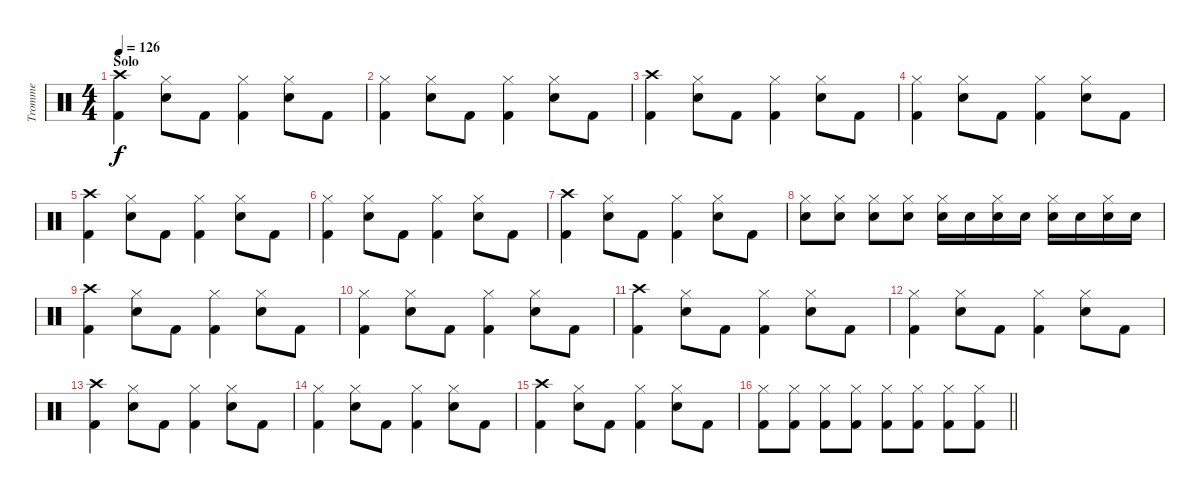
\track ("Tromme" "Tromme") {instrument percussion}
\staff {score}
\articulation defaults
\ts (4 4)
\section ("" "Solo")
\tempo 126
\clef neutral
\ks c
("Crash high (hit)" "Kick (hit) 2").4{dy f} ("Hi-Hat (closed)" "Snare (hit) 2").8 "Kick (hit) 2".8 ("Hi-Hat (closed)" "Kick (hit) 2").4 ("Hi-Hat (closed)" "Snare (hit) 2").8 "Kick (hit) 2".8 |
("Hi-Hat (closed)" "Kick (hit) 2").4 ("Hi-Hat (closed)" "Snare (hit) 2").8 "Kick (hit) 2".8 ("Hi-Hat (closed)" "Kick (hit) 2").4 ("Hi-Hat (closed)" "Snare (hit) 2").8 "Kick (hit) 2".8 |
("Crash high (hit)" "Kick (hit) 2").4 ("Hi-Hat (closed)" "Snare (hit) 2").8 "Kick (hit) 2".8 ("Hi-Hat (closed)" "Kick (hit) 2").4 ("Hi-Hat (closed)" "Snare (hit) 2").8 "Kick (hit) 2".8 |
("Hi-Hat (closed)" "Kick (hit) 2").4 ("Hi-Hat (closed)" "Snare (hit) 2").8 "Kick (hit) 2".8 ("Hi-Hat (closed)" "Kick (hit) 2").4 ("Hi-Hat (closed)" "Snare (hit) 2").8 "Kick (hit) 2".8 |
("Crash high (hit)" "Kick (hit) 2").4 ("Hi-Hat (closed)" "Snare (hit) 2").8 "Kick (hit) 2".8 ("Hi-Hat (closed)" "Kick (hit) 2").4 ("Hi-Hat (closed)" "Snare (hit) 2").8 "Kick (hit) 2".8 |
("Hi-Hat (closed)" "Kick (hit) 2").4 ("Hi-Hat (closed)" "Snare (hit) 2").8 "Kick (hit) 2".8 ("Hi-Hat (closed)" "Kick (hit) 2").4 ("Hi-Hat (closed)" "Snare (hit) 2").8 "Kick (hit) 2".8 |
("Crash high (hit)" "Kick (hit) 2").4 ("Hi-Hat (closed)" "Snare (hit) 2").8 "Kick (hit) 2".8 ("Hi-Hat (closed)" "Kick (hit) 2").4 ("Hi-Hat (closed)" "Snare (hit) 2").8 "Kick (hit) 2".8 |
("Hi-Hat (closed)" "Snare (hit) 2").8 ("Hi-Hat (closed)" "Snare (hit) 2").8 ("Hi-Hat (closed)" "Snare (hit) 2").8 ("Hi-Hat (closed)" "Snare (hit) 2").8 ("Hi-Hat (closed)" "Snare (hit) 2").16 "Snare (hit) 2".16 ("Hi-Hat (closed)" "Snare (hit) 2").16 "Snare (hit) 2".16 ("Hi-Hat (closed)" "Snare (hit) 2").16 "Snare (hit) 2".16 ("Hi-Hat (closed)" "Snare (hit) 2").16 "Snare (hit) 2".16 |
("Crash high (hit)" "Kick (hit) 2").4 ("Hi-Hat (closed)" "Snare (hit) 2").8 "Kick (hit) 2".8 ("Hi-Hat (closed)" "Kick (hit) 2").4 ("Hi-Hat (closed)" "Snare (hit) 2").8 "Kick (hit) 2".8 |
("Hi-Hat (closed)" "Kick (hit) 2").4 ("Hi-Hat (closed)" "Snare (hit) 2").8 "Kick (hit) 2".8 ("Hi-Hat (closed)" "Kick (hit) 2").4 ("Hi-Hat (closed)" "Snare (hit) 2").8 "Kick (hit) 2".8 |
("Crash high (hit)" "Kick (hit) 2").4 ("Hi-Hat (closed)" "Snare (hit) 2").8 "Kick (hit) 2".8 ("Hi-Hat (closed)" "Kick (hit) 2").4 ("Hi-Hat (closed)" "Snare (hit) 2").8 "Kick (hit) 2".8 |
("Hi-Hat (closed)" "Kick (hit) 2").4 ("Hi-Hat (closed)" "Snare (hit) 2").8 "Kick (hit) 2".8 ("Hi-Hat (closed)" "Kick (hit) 2").4 ("Hi-Hat (closed)" "Snare (hit) 2").8 "Kick (hit) 2".8 |
("Crash high (hit)" "Kick (hit) 2").4 ("Hi-Hat (closed)" "Snare (hit) 2").8 "Kick (hit) 2".8 ("Hi-Hat (closed)" "Kick (hit) 2").4 ("Hi-Hat (closed)" "Snare (hit) 2").8 "Kick (hit) 2".8 |
("Hi-Hat (closed)" "Kick (hit) 2").4 ("Hi-Hat (closed)" "Snare (hit) 2").8 "Kick (hit) 2".8 ("Hi-Hat (closed)" "Kick (hit) 2").4 ("Hi-Hat (closed)" "Snare (hit) 2").8 "Kick (hit) 2".8 |
("Crash high (hit)" "Kick (hit) 2").4 ("Hi-Hat (closed)" "Snare (hit) 2").8 "Kick (hit) 2".8 ("Hi-Hat (closed)" "Kick (hit) 2").4 ("Hi-Hat (closed)" "Snare (hit) 2").8 "Kick (hit) 2".8 |
\barLineRight lightlight
("Hi-Hat (closed)" "Kick (hit) 2").8 ("Hi-Hat (closed)" "Kick (hit) 2").8 ("Hi-Hat (closed)" "Kick (hit) 2").8 ("Hi-Hat (closed)" "Kick (hit) 2").8 ("Hi-Hat (closed)" "Kick (hit) 2").8 ("Hi-Hat (closed)" "Kick (hit) 2").8 ("Hi-Hat (closed)" "Kick (hit) 2").8 ("Hi-Hat (closed)" "Kick (hit) 2").8
